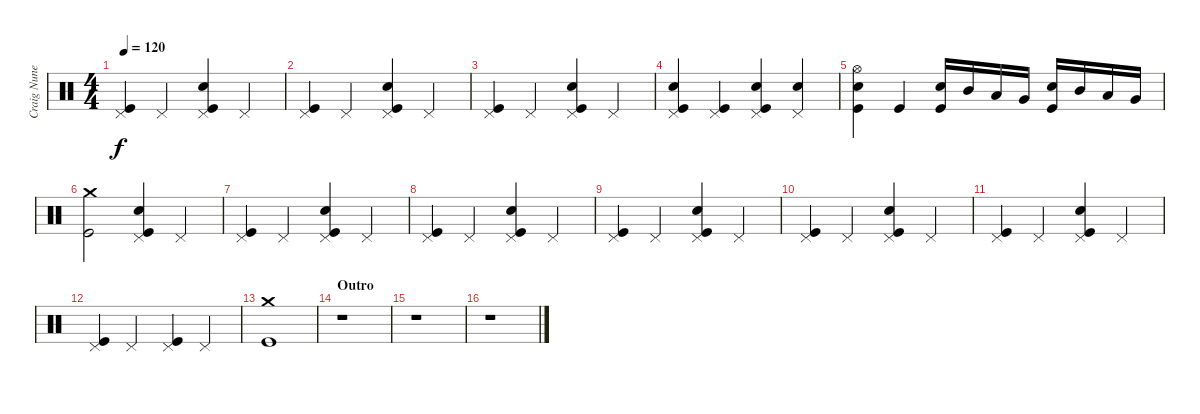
\track ("Craig Nunenmacher" "Craig Nune") {instrument percussion}
\staff {score}
\articulation defaults
\ts (4 4)
\tempo 120
\clef neutral
\ks c
("Pedal Hi-Hat (hit)" "Kick (hit)").4{dy f} "Pedal Hi-Hat (hit)".4 ("Pedal Hi-Hat (hit)" "Snare (hit) 2" "Kick (hit)").4 "Pedal Hi-Hat (hit)".4 |
("Pedal Hi-Hat (hit)" "Kick (hit)").4 "Pedal Hi-Hat (hit)".4 ("Pedal Hi-Hat (hit)" "Snare (hit) 2" "Kick (hit)").4 "Pedal Hi-Hat (hit)".4 |
("Pedal Hi-Hat (hit)" "Kick (hit)").4 "Pedal Hi-Hat (hit)".4 ("Pedal Hi-Hat (hit)" "Snare (hit) 2" "Kick (hit)").4 "Pedal Hi-Hat (hit)".4 |
("Pedal Hi-Hat (hit)" "Snare (hit) 2" "Kick (hit)").4 ("Pedal Hi-Hat (hit)" "Kick (hit)").4 ("Pedal Hi-Hat (hit)" "Snare (hit) 2" "Kick (hit)").4 ("Pedal Hi-Hat (hit)" "Snare (hit) 2").4 |
("Hi-Hat (open)" "Snare (hit) 2" "Kick (hit)").4 "Kick (hit)".4 ("Snare (hit) 2" "Kick (hit)").16 "Mid Tom (hit)".16 "Low Tom (hit)".16 "Very Low Tom (hit)".16 ("Snare (hit) 2" "Kick (hit)").16 "Mid Tom (hit)".16 "Low Tom (hit)".16 "Very Low Tom (hit)".16 |
("Crash medium (hit)" "Kick (hit)").2 ("Pedal Hi-Hat (hit)" "Snare (hit) 2" "Kick (hit)").4 "Pedal Hi-Hat (hit)".4 |
("Pedal Hi-Hat (hit)" "Kick (hit)").4 "Pedal Hi-Hat (hit)".4 ("Pedal Hi-Hat (hit)" "Snare (hit) 2" "Kick (hit)").4 "Pedal Hi-Hat (hit)".4 |
("Pedal Hi-Hat (hit)" "Kick (hit)").4 "Pedal Hi-Hat (hit)".4 ("Pedal Hi-Hat (hit)" "Snare (hit) 2" "Kick (hit)").4 "Pedal Hi-Hat (hit)".4 |
("Pedal Hi-Hat (hit)" "Kick (hit)").4 "Pedal Hi-Hat (hit)".4 ("Pedal Hi-Hat (hit)" "Snare (hit) 2" "Kick (hit)").4 "Pedal Hi-Hat (hit)".4 |
("Pedal Hi-Hat (hit)" "Kick (hit)").4 "Pedal Hi-Hat (hit)".4 ("Pedal Hi-Hat (hit)" "Snare (hit) 2" "Kick (hit)").4 "Pedal Hi-Hat (hit)".4 |
("Pedal Hi-Hat (hit)" "Kick (hit)").4 "Pedal Hi-Hat (hit)".4 ("Pedal Hi-Hat (hit)" "Snare (hit) 2" "Kick (hit)").4 "Pedal Hi-Hat (hit)".4 |
("Pedal Hi-Hat (hit)" "Kick (hit)").4 "Pedal Hi-Hat (hit)".4 ("Pedal Hi-Hat (hit)" "Kick (hit)").4 "Pedal Hi-Hat (hit)".4 |
("Crash medium (hit)" "Kick (hit)").1 |
\section ("" "Outro")
r.1 |
r.1 |
r.1
